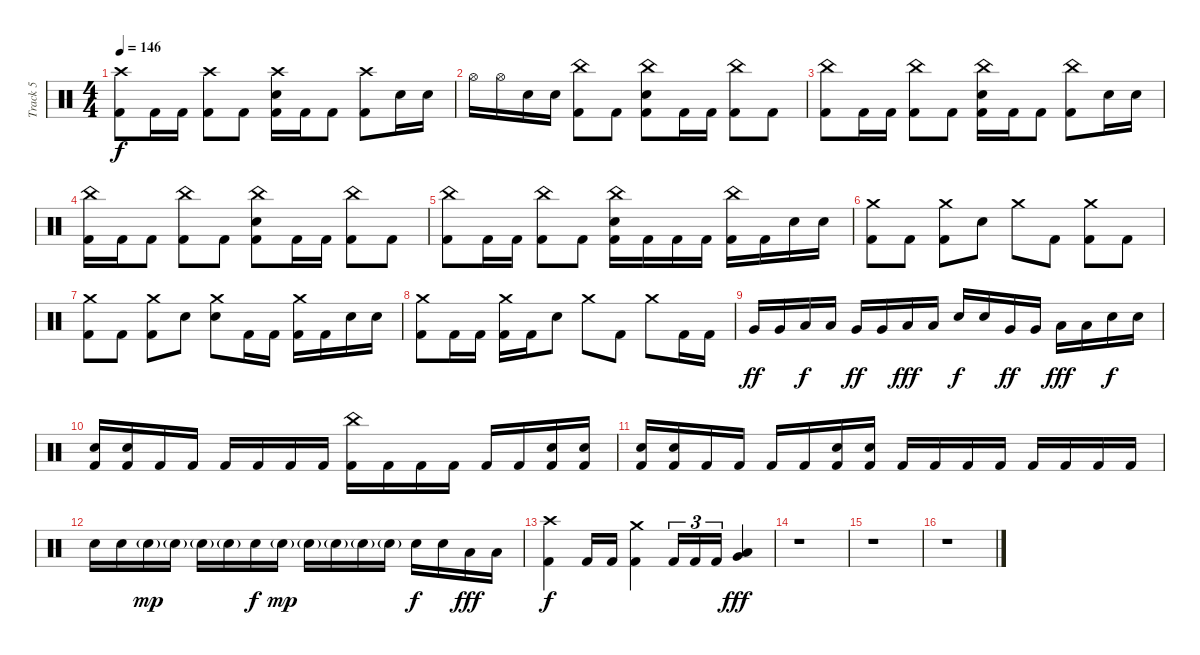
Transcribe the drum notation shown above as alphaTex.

\track ("Track 5" "Track 5") {instrument percussion}
\staff {score}
\articulation defaults
\ts (4 4)
\tempo 146
\clef neutral
\ks c
("Crash high (hit)" "Kick (hit) 2").8{dy f} "Kick (hit) 2".16 "Kick (hit) 2".16 ("Crash high (hit)" "Kick (hit) 2").8 "Kick (hit) 2".8 ("Crash high (hit)" "Electric Snare (hit)" "Kick (hit) 2").16 "Kick (hit) 2".16 "Kick (hit) 2".8 ("Crash high (hit)" "Kick (hit) 2").8 "Electric Snare (hit)".16 "Electric Snare (hit)".16 |
"Hi-Hat (open)".16 "Hi-Hat (open)".16 "Electric Snare (hit)".16 "Electric Snare (hit)".16 ("China (hit)" "Kick (hit) 2").8 "Kick (hit) 2".8 ("China (hit)" "Electric Snare (hit)" "Kick (hit) 2").8 "Kick (hit) 2".16 "Kick (hit) 2".16 ("China (hit)" "Kick (hit) 2").8 "Kick (hit) 2".8 |
("China (hit)" "Kick (hit) 2").8 "Kick (hit) 2".16 "Kick (hit) 2".16 ("China (hit)" "Kick (hit) 2").8 "Kick (hit) 2".8 ("China (hit)" "Electric Snare (hit)" "Kick (hit) 2").16 "Kick (hit) 2".16 "Kick (hit) 2".8 ("China (hit)" "Kick (hit) 2").8 "Electric Snare (hit)".16 "Electric Snare (hit)".16 |
("China (hit)" "Kick (hit) 2").16 "Kick (hit) 2".16 "Kick (hit) 2".8 ("China (hit)" "Kick (hit) 2").8 "Kick (hit) 2".8 ("China (hit)" "Electric Snare (hit)" "Kick (hit) 2").8 "Kick (hit) 2".16 "Kick (hit) 2".16 ("China (hit)" "Kick (hit) 2").8 "Kick (hit) 2".8 |
("China (hit)" "Kick (hit) 2").8 "Kick (hit) 2".16 "Kick (hit) 2".16 ("China (hit)" "Kick (hit) 2").8 "Kick (hit) 2".8 ("China (hit)" "Electric Snare (hit)" "Kick (hit) 2").16 "Kick (hit) 2".16 "Kick (hit) 2".16 "Kick (hit) 2".16 ("China (hit)" "Kick (hit) 2").16 "Kick (hit) 2".16 "Electric Snare (hit)".16 "Electric Snare (hit)".16 |
("Crash medium (hit)" "Kick (hit) 2").8 "Kick (hit) 2".8 ("Crash medium (hit)" "Kick (hit) 2").8 "Electric Snare (hit)".8 "Crash medium (hit)".8 "Kick (hit) 2".8 ("Crash medium (hit)" "Kick (hit) 2").8 "Kick (hit) 2".8 |
("Crash medium (hit)" "Kick (hit) 2").8 "Kick (hit) 2".8 ("Crash medium (hit)" "Kick (hit) 2").8 "Electric Snare (hit)".8 ("Crash medium (hit)" "Electric Snare (hit)").8 "Kick (hit) 2".16 "Kick (hit) 2".16 ("Crash medium (hit)" "Kick (hit) 2").16 "Kick (hit) 2".16 "Electric Snare (hit)".16 "Electric Snare (hit)".16 |
("Crash medium (hit)" "Kick (hit) 2").8 "Kick (hit) 2".16 "Kick (hit) 2".16 ("Crash medium (hit)" "Kick (hit) 2").16 "Kick (hit) 2".16 "Electric Snare (hit)".8 "Crash medium (hit)".8 "Kick (hit) 2".8 "Crash medium (hit)".8 "Kick (hit) 2".16 "Kick (hit) 2".16 |
"Very Low Tom (hit)".16{dy ff} "Very Low Tom (hit)".16 "Low Tom (hit)".16{dy f} "Low Tom (hit)".16 "Very Low Tom (hit)".16{dy ff} "Very Low Tom (hit)".16 "Low Floor Tom (hit)".16{dy fff} "Low Floor Tom (hit)".16 "Electric Snare (hit)".16{dy f} "Electric Snare (hit)".16 "Very Low Tom (hit)".16{dy ff} "Very Low Tom (hit)".16 "Low Floor Tom (hit)".16{dy fff} "Low Floor Tom (hit)".16 "Electric Snare (hit)".16{dy f} "Electric Snare (hit)".16 |
("Electric Snare (hit)" "Kick (hit) 2").16 ("Electric Snare (hit)" "Kick (hit) 2").16 "Kick (hit) 2".16 "Kick (hit) 2".16 "Kick (hit) 2".16 "Kick (hit) 2".16 "Kick (hit) 2".16 "Kick (hit) 2".16 ("China (hit)" "Kick (hit) 2").16 "Kick (hit) 2".16 "Kick (hit) 2".16 "Kick (hit) 2".16 "Kick (hit) 2".16 "Kick (hit) 2".16 ("Electric Snare (hit)" "Kick (hit) 2").16 ("Electric Snare (hit)" "Kick (hit) 2").16 |
("Electric Snare (hit)" "Kick (hit) 2").16 ("Electric Snare (hit)" "Kick (hit) 2").16 "Kick (hit) 2".16 "Kick (hit) 2".16 "Kick (hit) 2".16 "Kick (hit) 2".16 ("Electric Snare (hit)" "Kick (hit) 2").16 ("Electric Snare (hit)" "Kick (hit) 2").16 "Kick (hit) 2".16 "Kick (hit) 2".16 "Kick (hit) 2".16 "Kick (hit) 2".16 "Kick (hit) 2".16 "Kick (hit) 2".16 "Kick (hit) 2".16 "Kick (hit) 2".16 |
"Electric Snare (hit)".16 "Electric Snare (hit)".16 "Electric Snare (hit)"{g}.16{dy mp} "Electric Snare (hit)"{g}.16 "Electric Snare (hit)"{g}.16 "Electric Snare (hit)"{g}.16 "Electric Snare (hit)".16{dy f} "Electric Snare (hit)"{g}.16{dy mp} "Electric Snare (hit)"{g}.16 "Electric Snare (hit)"{g}.16 "Electric Snare (hit)"{g}.16 "Electric Snare (hit)"{g}.16 "Electric Snare (hit)".16{dy f} "Electric Snare (hit)".16 "Low Floor Tom (hit)".16{dy fff} "Low Floor Tom (hit)".16 |
("Crash high (hit)" "Kick (hit) 2").4{dy f} "Kick (hit) 2".16 "Kick (hit) 2".16 ("Crash medium (hit)" "Kick (hit) 2").4 "Kick (hit) 2".16{tu (3 2)} "Kick (hit) 2".16{tu (3 2)} "Kick (hit) 2".16{tu (3 2)} ("Very Low Tom (hit)" "Low Floor Tom (hit)").4{dy fff} |
r.1 |
r.1 |
r.1
